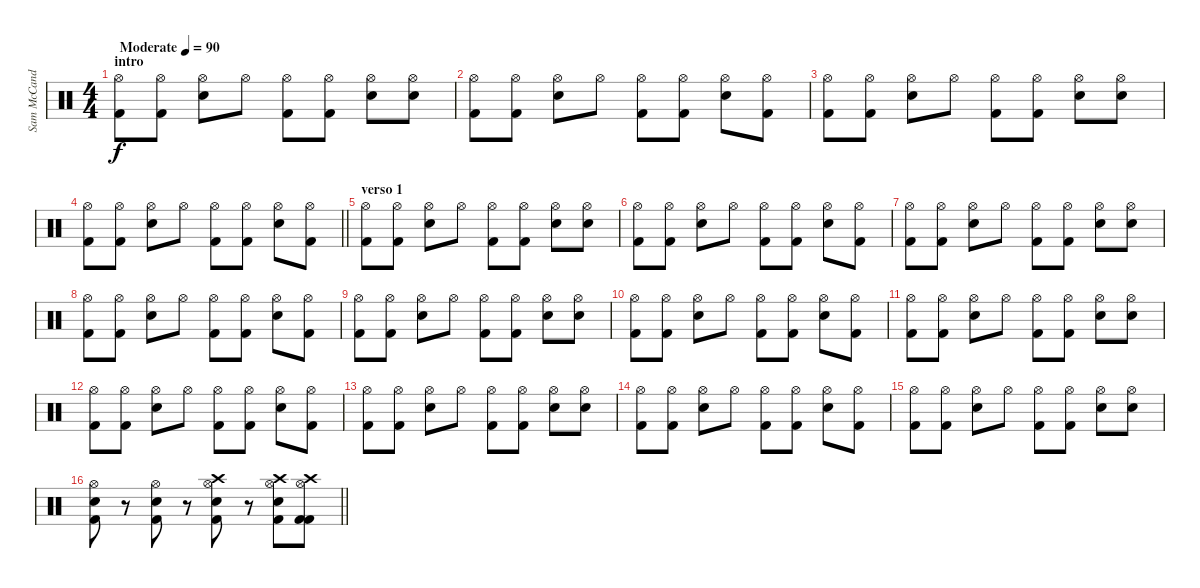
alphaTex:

\track ("Sam McCandless" "Sam McCand") {instrument percussion}
\staff {score}
\articulation defaults
\ts (4 4)
\section ("" "intro")
\tempo (90 "Moderate")
\clef neutral
\ks c
("Hi-Hat (open)" "Kick (hit) 2").8{dy f volume 16} ("Hi-Hat (open)" "Kick (hit) 2").8 ("Hi-Hat (open)" "Electric Snare (hit)").8 "Hi-Hat (open)".8 ("Hi-Hat (open)" "Kick (hit) 2").8 ("Hi-Hat (open)" "Kick (hit) 2").8 ("Hi-Hat (open)" "Electric Snare (hit)").8 ("Hi-Hat (open)" "Electric Snare (hit)").8 |
("Hi-Hat (open)" "Kick (hit) 2").8 ("Hi-Hat (open)" "Kick (hit) 2").8 ("Hi-Hat (open)" "Electric Snare (hit)").8 "Hi-Hat (open)".8 ("Hi-Hat (open)" "Kick (hit) 2").8 ("Hi-Hat (open)" "Kick (hit) 2").8 ("Hi-Hat (open)" "Electric Snare (hit)").8 ("Hi-Hat (open)" "Kick (hit) 2").8 |
("Hi-Hat (open)" "Kick (hit) 2").8 ("Hi-Hat (open)" "Kick (hit) 2").8 ("Hi-Hat (open)" "Electric Snare (hit)").8 "Hi-Hat (open)".8 ("Hi-Hat (open)" "Kick (hit) 2").8 ("Hi-Hat (open)" "Kick (hit) 2").8 ("Hi-Hat (open)" "Electric Snare (hit)").8 ("Hi-Hat (open)" "Electric Snare (hit)").8 |
\barLineRight lightlight
("Hi-Hat (open)" "Kick (hit) 2").8 ("Hi-Hat (open)" "Kick (hit) 2").8 ("Hi-Hat (open)" "Electric Snare (hit)").8 "Hi-Hat (open)".8 ("Hi-Hat (open)" "Kick (hit) 2").8 ("Hi-Hat (open)" "Kick (hit) 2").8 ("Hi-Hat (open)" "Electric Snare (hit)").8 ("Hi-Hat (open)" "Kick (hit) 2").8 |
\section ("" "verso 1")
("Hi-Hat (open)" "Kick (hit) 2").8{volume 13} ("Hi-Hat (open)" "Kick (hit) 2").8 ("Hi-Hat (open)" "Electric Snare (hit)").8 "Hi-Hat (open)".8 ("Hi-Hat (open)" "Kick (hit) 2").8 ("Hi-Hat (open)" "Kick (hit) 2").8 ("Hi-Hat (open)" "Electric Snare (hit)").8 ("Hi-Hat (open)" "Electric Snare (hit)").8 |
("Hi-Hat (open)" "Kick (hit) 2").8 ("Hi-Hat (open)" "Kick (hit) 2").8 ("Hi-Hat (open)" "Electric Snare (hit)").8 "Hi-Hat (open)".8 ("Hi-Hat (open)" "Kick (hit) 2").8 ("Hi-Hat (open)" "Kick (hit) 2").8 ("Hi-Hat (open)" "Electric Snare (hit)").8 ("Hi-Hat (open)" "Kick (hit) 2").8 |
("Hi-Hat (open)" "Kick (hit) 2").8 ("Hi-Hat (open)" "Kick (hit) 2").8 ("Hi-Hat (open)" "Electric Snare (hit)").8 "Hi-Hat (open)".8 ("Hi-Hat (open)" "Kick (hit) 2").8 ("Hi-Hat (open)" "Kick (hit) 2").8 ("Hi-Hat (open)" "Electric Snare (hit)").8 ("Hi-Hat (open)" "Electric Snare (hit)").8 |
("Hi-Hat (open)" "Kick (hit) 2").8 ("Hi-Hat (open)" "Kick (hit) 2").8 ("Hi-Hat (open)" "Electric Snare (hit)").8 "Hi-Hat (open)".8 ("Hi-Hat (open)" "Kick (hit) 2").8 ("Hi-Hat (open)" "Kick (hit) 2").8 ("Hi-Hat (open)" "Electric Snare (hit)").8 ("Hi-Hat (open)" "Kick (hit) 2").8 |
("Hi-Hat (open)" "Kick (hit) 2").8 ("Hi-Hat (open)" "Kick (hit) 2").8 ("Hi-Hat (open)" "Electric Snare (hit)").8 "Hi-Hat (open)".8 ("Hi-Hat (open)" "Kick (hit) 2").8 ("Hi-Hat (open)" "Kick (hit) 2").8 ("Hi-Hat (open)" "Electric Snare (hit)").8 ("Hi-Hat (open)" "Electric Snare (hit)").8 |
("Hi-Hat (open)" "Kick (hit) 2").8 ("Hi-Hat (open)" "Kick (hit) 2").8 ("Hi-Hat (open)" "Electric Snare (hit)").8 "Hi-Hat (open)".8 ("Hi-Hat (open)" "Kick (hit) 2").8 ("Hi-Hat (open)" "Kick (hit) 2").8 ("Hi-Hat (open)" "Electric Snare (hit)").8 ("Hi-Hat (open)" "Kick (hit) 2").8 |
("Hi-Hat (open)" "Kick (hit) 2").8 ("Hi-Hat (open)" "Kick (hit) 2").8 ("Hi-Hat (open)" "Electric Snare (hit)").8 "Hi-Hat (open)".8 ("Hi-Hat (open)" "Kick (hit) 2").8 ("Hi-Hat (open)" "Kick (hit) 2").8 ("Hi-Hat (open)" "Electric Snare (hit)").8 ("Hi-Hat (open)" "Electric Snare (hit)").8 |
("Hi-Hat (open)" "Kick (hit) 2").8 ("Hi-Hat (open)" "Kick (hit) 2").8 ("Hi-Hat (open)" "Electric Snare (hit)").8 "Hi-Hat (open)".8 ("Hi-Hat (open)" "Kick (hit) 2").8 ("Hi-Hat (open)" "Kick (hit) 2").8 ("Hi-Hat (open)" "Electric Snare (hit)").8 ("Hi-Hat (open)" "Kick (hit) 2").8 |
("Hi-Hat (open)" "Kick (hit) 2").8 ("Hi-Hat (open)" "Kick (hit) 2").8 ("Hi-Hat (open)" "Electric Snare (hit)").8 "Hi-Hat (open)".8 ("Hi-Hat (open)" "Kick (hit) 2").8 ("Hi-Hat (open)" "Kick (hit) 2").8 ("Hi-Hat (open)" "Electric Snare (hit)").8 ("Hi-Hat (open)" "Electric Snare (hit)").8 |
("Hi-Hat (open)" "Kick (hit) 2").8 ("Hi-Hat (open)" "Kick (hit) 2").8 ("Hi-Hat (open)" "Electric Snare (hit)").8 "Hi-Hat (open)".8 ("Hi-Hat (open)" "Kick (hit) 2").8 ("Hi-Hat (open)" "Kick (hit) 2").8 ("Hi-Hat (open)" "Electric Snare (hit)").8 ("Hi-Hat (open)" "Kick (hit) 2").8 |
("Hi-Hat (open)" "Kick (hit) 2").8 ("Hi-Hat (open)" "Kick (hit) 2").8 ("Hi-Hat (open)" "Electric Snare (hit)").8 "Hi-Hat (open)".8 ("Hi-Hat (open)" "Kick (hit) 2").8 ("Hi-Hat (open)" "Kick (hit) 2").8 ("Hi-Hat (open)" "Electric Snare (hit)").8 ("Hi-Hat (open)" "Electric Snare (hit)").8 |
\barLineRight lightlight
("Hi-Hat (open)" "Kick (hit) 2" "Snare (hit) 2").8 r.8 ("Hi-Hat (open)" "Kick (hit) 2" "Snare (hit) 2").8 r.8 ("Crash high (hit)" "Hi-Hat (open)" "Kick (hit) 2" "Snare (hit) 2").8 r.8 ("Crash high (hit)" "Hi-Hat (open)" "Kick (hit) 2" "Snare (hit) 2").8 ("Crash high (hit)" "Hi-Hat (open)" "Kick (hit) 2" "Kick (hit) 2").8
